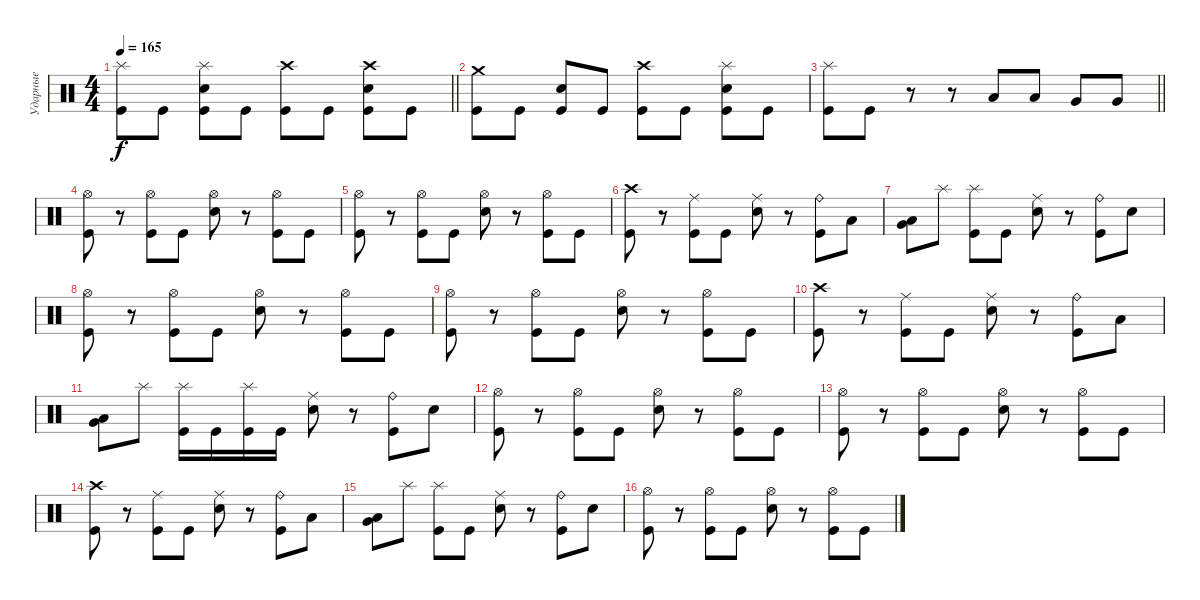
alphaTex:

\track ("Ударные" "Ударные") {instrument percussion}
\staff {score}
\articulation defaults
\ts (4 4)
\tempo 165
\clef neutral
\barLineRight lightlight
\ks c
("Splash (hit)" "Kick (hit)").8{dy f} "Kick (hit)".8 ("Splash (hit)" "Electric Snare (hit)" "Kick (hit)").8 "Kick (hit)".8 ("Crash high (hit)" "Kick (hit)").8 "Kick (hit)".8 ("Crash high (hit)" "Electric Snare (hit)" "Kick (hit)").8 "Kick (hit)".8 |
\section ("" " ")
("Crash medium (hit)" "Kick (hit)").8 "Kick (hit)".8 ("Electric Snare (hit)" "Kick (hit)").8 "Kick (hit)".8 ("Crash high (hit)" "Kick (hit)").8 "Kick (hit)".8 ("Splash (hit)" "Electric Snare (hit)" "Kick (hit)").8 "Kick (hit)".8 |
\barLineRight lightlight
("Splash (hit)" "Kick (hit)").8 "Kick (hit)".8 r.8 r.8 "Low Tom (hit)".8 "Low Tom (hit)".8 "Very Low Tom (hit)".8 "Very Low Tom (hit)".8 |
("Hi-Hat (open)" "Kick (hit)").8 r.8 ("Hi-Hat (open)" "Kick (hit)").8 "Kick (hit)".8 ("Hi-Hat (open)" "Electric Snare (hit)").8 r.8 ("Hi-Hat (open)" "Kick (hit)").8 "Kick (hit)".8 |
("Hi-Hat (open)" "Kick (hit)").8 r.8 ("Hi-Hat (open)" "Kick (hit)").8 "Kick (hit)".8 ("Hi-Hat (open)" "Electric Snare (hit)").8 r.8 ("Hi-Hat (open)" "Kick (hit)").8 "Kick (hit)".8 |
("Crash high (hit)" "Kick (hit)").8 r.8 ("Ride (middle)" "Kick (hit)").8 "Kick (hit)".8 ("Ride (middle)" "Electric Snare (hit)").8 r.8 ("Ride (bell)" "Kick (hit)").8 "Low Tom (hit)".8 |
("Low Tom (hit)" "Very Low Tom (hit)").8 "Splash (hit)".8 ("Splash (hit)" "Kick (hit)").8 "Kick (hit)".8 ("Ride (middle)" "Electric Snare (hit)").8 r.8 ("Ride (bell)" "Kick (hit)").8 "Electric Snare (hit)".8 |
("Hi-Hat (open)" "Kick (hit)").8 r.8 ("Hi-Hat (open)" "Kick (hit)").8 "Kick (hit)".8 ("Hi-Hat (open)" "Electric Snare (hit)").8 r.8 ("Hi-Hat (open)" "Kick (hit)").8 "Kick (hit)".8 |
("Hi-Hat (open)" "Kick (hit)").8 r.8 ("Hi-Hat (open)" "Kick (hit)").8 "Kick (hit)".8 ("Hi-Hat (open)" "Electric Snare (hit)").8 r.8 ("Hi-Hat (open)" "Kick (hit)").8 "Kick (hit)".8 |
("Crash high (hit)" "Kick (hit)").8 r.8 ("Ride (middle)" "Kick (hit)").8 "Kick (hit)".8 ("Ride (middle)" "Electric Snare (hit)").8 r.8 ("Ride (bell)" "Kick (hit)").8 "Low Tom (hit)".8 |
("Low Tom (hit)" "Very Low Tom (hit)").8 "Splash (hit)".8 ("Splash (hit)" "Kick (hit)").16 "Kick (hit)".16 ("Splash (hit)" "Kick (hit)").16 "Kick (hit)".16 ("Ride (middle)" "Electric Snare (hit)").8 r.8 ("Ride (bell)" "Kick (hit)").8 "Electric Snare (hit)".8 |
("Hi-Hat (open)" "Kick (hit)").8 r.8 ("Hi-Hat (open)" "Kick (hit)").8 "Kick (hit)".8 ("Hi-Hat (open)" "Electric Snare (hit)").8 r.8 ("Hi-Hat (open)" "Kick (hit)").8 "Kick (hit)".8 |
("Hi-Hat (open)" "Kick (hit)").8 r.8 ("Hi-Hat (open)" "Kick (hit)").8 "Kick (hit)".8 ("Hi-Hat (open)" "Electric Snare (hit)").8 r.8 ("Hi-Hat (open)" "Kick (hit)").8 "Kick (hit)".8 |
("Crash high (hit)" "Kick (hit)").8 r.8 ("Ride (middle)" "Kick (hit)").8 "Kick (hit)".8 ("Ride (middle)" "Electric Snare (hit)").8 r.8 ("Ride (bell)" "Kick (hit)").8 "Low Tom (hit)".8 |
("Low Tom (hit)" "Very Low Tom (hit)").8 "Splash (hit)".8 ("Splash (hit)" "Kick (hit)").8 "Kick (hit)".8 ("Ride (middle)" "Electric Snare (hit)").8 r.8 ("Ride (bell)" "Kick (hit)").8 "Electric Snare (hit)".8 |
("Hi-Hat (open)" "Kick (hit)").8 r.8 ("Hi-Hat (open)" "Kick (hit)").8 "Kick (hit)".8 ("Hi-Hat (open)" "Electric Snare (hit)").8 r.8 ("Hi-Hat (open)" "Kick (hit)").8 "Kick (hit)".8
